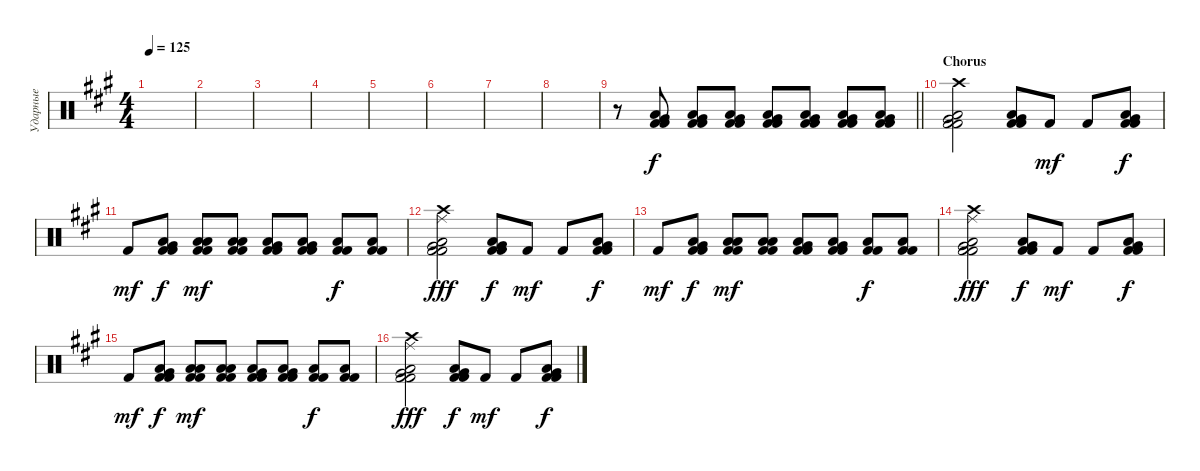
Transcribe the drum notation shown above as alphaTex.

\track ("Ударные" "Ударные") {instrument percussion}
\staff {score}
\articulation defaults
\ts (4 4)
\tempo 125
\clef neutral
\ks f#minor
|
|
|
|
|
|
|
|
\barLineRight lightlight
r.8 ("Very Low Tom (hit)" "Low Floor Tom (hit)" "Kick (hit) 2" "Kick (hit) 2").8 ("Very Low Tom (hit)" "Low Floor Tom (hit)" "Kick (hit) 2" "Kick (hit) 2").8 ("Very Low Tom (hit)" "Low Floor Tom (hit)" "Kick (hit) 2" "Kick (hit) 2").8 ("Very Low Tom (hit)" "Low Floor Tom (hit)" "Kick (hit) 2" "Kick (hit) 2").8 ("Very Low Tom (hit)" "Low Floor Tom (hit)" "Kick (hit) 2" "Kick (hit) 2").8 ("Very Low Tom (hit)" "Low Floor Tom (hit)" "Kick (hit) 2" "Kick (hit) 2").8 ("Very Low Tom (hit)" "Low Floor Tom (hit)" "Kick (hit) 2" "Kick (hit) 2").8 |
\section ("" "Chorus")
("Crash high (hit)" "Very Low Tom (hit)" "Low Floor Tom (hit)" "Kick (hit) 2" "Kick (hit) 2").2 ("Very Low Tom (hit)" "Low Floor Tom (hit)" "Kick (hit) 2" "Kick (hit) 2").8 "Kick (hit) 2".8{dy mf} "Kick (hit) 2".8 ("Very Low Tom (hit)" "Low Floor Tom (hit)" "Kick (hit) 2" "Kick (hit) 2").8{dy f} |
"Kick (hit) 2".8{dy mf} ("Very Low Tom (hit)" "Low Floor Tom (hit)" "Kick (hit) 2" "Kick (hit) 2").8{dy f} ("Low Tom (hit)" "Low Floor Tom (hit)" "Kick (hit) 2" "Kick (hit) 2").8{dy mf} ("Low Tom (hit)" "Low Floor Tom (hit)" "Kick (hit) 2" "Kick (hit) 2").8 ("Very Low Tom (hit)" "Low Floor Tom (hit)" "Kick (hit) 2" "Kick (hit) 2").8 ("Very Low Tom (hit)" "Low Floor Tom (hit)" "Kick (hit) 2" "Kick (hit) 2").8 ("Low Floor Tom (hit)" "Kick (hit) 2" "Kick (hit) 2").8{dy f} ("Low Floor Tom (hit)" "Kick (hit) 2" "Kick (hit) 2").8 |
("Crash high (hit)" "Ride (middle)" "Very Low Tom (hit)" "Low Floor Tom (hit)" "Kick (hit) 2" "Kick (hit) 2").2{dy fff} ("Very Low Tom (hit)" "Low Floor Tom (hit)" "Kick (hit) 2" "Kick (hit) 2").8{dy f} "Kick (hit) 2".8{dy mf} "Kick (hit) 2".8 ("Very Low Tom (hit)" "Low Floor Tom (hit)" "Kick (hit) 2" "Kick (hit) 2").8{dy f} |
"Kick (hit) 2".8{dy mf} ("Very Low Tom (hit)" "Low Floor Tom (hit)" "Kick (hit) 2" "Kick (hit) 2").8{dy f} ("Low Tom (hit)" "Low Floor Tom (hit)" "Kick (hit) 2" "Kick (hit) 2").8{dy mf} ("Low Tom (hit)" "Low Floor Tom (hit)" "Kick (hit) 2" "Kick (hit) 2").8 ("Very Low Tom (hit)" "Low Floor Tom (hit)" "Kick (hit) 2" "Kick (hit) 2").8 ("Very Low Tom (hit)" "Low Floor Tom (hit)" "Kick (hit) 2" "Kick (hit) 2").8 ("Low Floor Tom (hit)" "Kick (hit) 2" "Kick (hit) 2").8{dy f} ("Low Floor Tom (hit)" "Kick (hit) 2" "Kick (hit) 2").8 |
("Crash high (hit)" "Ride (middle)" "Very Low Tom (hit)" "Low Floor Tom (hit)" "Kick (hit) 2" "Kick (hit) 2").2{dy fff} ("Very Low Tom (hit)" "Low Floor Tom (hit)" "Kick (hit) 2" "Kick (hit) 2").8{dy f} "Kick (hit) 2".8{dy mf} "Kick (hit) 2".8 ("Very Low Tom (hit)" "Low Floor Tom (hit)" "Kick (hit) 2" "Kick (hit) 2").8{dy f} |
"Kick (hit) 2".8{dy mf} ("Very Low Tom (hit)" "Low Floor Tom (hit)" "Kick (hit) 2" "Kick (hit) 2").8{dy f} ("Low Tom (hit)" "Low Floor Tom (hit)" "Kick (hit) 2" "Kick (hit) 2").8{dy mf} ("Low Tom (hit)" "Low Floor Tom (hit)" "Kick (hit) 2" "Kick (hit) 2").8 ("Very Low Tom (hit)" "Low Floor Tom (hit)" "Kick (hit) 2" "Kick (hit) 2").8 ("Very Low Tom (hit)" "Low Floor Tom (hit)" "Kick (hit) 2" "Kick (hit) 2").8 ("Low Floor Tom (hit)" "Kick (hit) 2" "Kick (hit) 2").8{dy f} ("Low Floor Tom (hit)" "Kick (hit) 2" "Kick (hit) 2").8 |
("Crash high (hit)" "Ride (middle)" "Very Low Tom (hit)" "Low Floor Tom (hit)" "Kick (hit) 2" "Kick (hit) 2").2{dy fff} ("Very Low Tom (hit)" "Low Floor Tom (hit)" "Kick (hit) 2" "Kick (hit) 2").8{dy f} "Kick (hit) 2".8{dy mf} "Kick (hit) 2".8 ("Very Low Tom (hit)" "Low Floor Tom (hit)" "Kick (hit) 2" "Kick (hit) 2").8{dy f}
